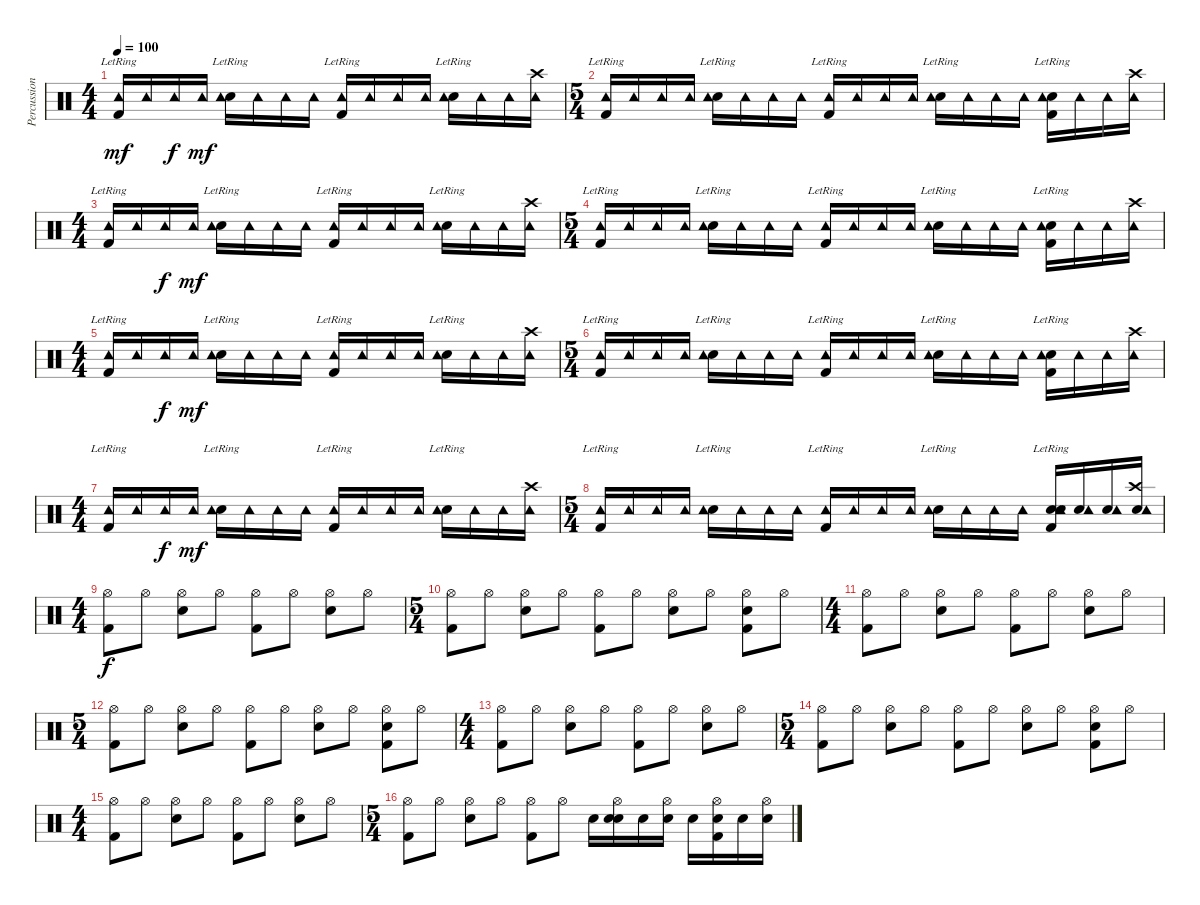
\track ("Percussion" "Percussion") {instrument percussion}
\staff {score}
\articulation defaults
\ts (4 4)
\tempo 100
\clef neutral
\ks c
("Kick (hit) 2"{lr} "Tambourine (hit)").16{dy mf} "Tambourine (hit)".16 "Tambourine (hit)".16{dy f} "Tambourine (hit)".16{dy mf} ("Snare (hit) 2"{lr} "Tambourine (hit)").16 "Tambourine (hit)".16 "Tambourine (hit)".16 "Tambourine (hit)".16 ("Kick (hit) 2"{lr} "Tambourine (hit)").16 "Tambourine (hit)".16 "Tambourine (hit)".16 "Tambourine (hit)".16 ("Snare (hit) 2"{lr} "Tambourine (hit)").16 "Tambourine (hit)".16 "Tambourine (hit)".16 ("Crash high (hit)" "Tambourine (hit)").16 |
\ts (5 4)
("Kick (hit) 2"{lr} "Tambourine (hit)").16 "Tambourine (hit)".16 "Tambourine (hit)".16 "Tambourine (hit)".16 ("Snare (hit) 2"{lr} "Tambourine (hit)").16 "Tambourine (hit)".16 "Tambourine (hit)".16 "Tambourine (hit)".16 ("Kick (hit) 2"{lr} "Tambourine (hit)").16 "Tambourine (hit)".16 "Tambourine (hit)".16 "Tambourine (hit)".16 ("Snare (hit) 2"{lr} "Tambourine (hit)").16 "Tambourine (hit)".16 "Tambourine (hit)".16 "Tambourine (hit)".16 ("Kick (hit) 2"{lr} "Snare (hit) 2"{lr} "Tambourine (hit)").16 "Tambourine (hit)".16 "Tambourine (hit)".16 ("Crash high (hit)" "Tambourine (hit)").16 |
\ts (4 4)
("Kick (hit) 2"{lr} "Tambourine (hit)").16 "Tambourine (hit)".16 "Tambourine (hit)".16{dy f} "Tambourine (hit)".16{dy mf} ("Snare (hit) 2"{lr} "Tambourine (hit)").16 "Tambourine (hit)".16 "Tambourine (hit)".16 "Tambourine (hit)".16 ("Kick (hit) 2"{lr} "Tambourine (hit)").16 "Tambourine (hit)".16 "Tambourine (hit)".16 "Tambourine (hit)".16 ("Snare (hit) 2"{lr} "Tambourine (hit)").16 "Tambourine (hit)".16 "Tambourine (hit)".16 ("Crash high (hit)" "Tambourine (hit)").16 |
\ts (5 4)
("Kick (hit) 2"{lr} "Tambourine (hit)").16 "Tambourine (hit)".16 "Tambourine (hit)".16 "Tambourine (hit)".16 ("Snare (hit) 2"{lr} "Tambourine (hit)").16 "Tambourine (hit)".16 "Tambourine (hit)".16 "Tambourine (hit)".16 ("Kick (hit) 2"{lr} "Tambourine (hit)").16 "Tambourine (hit)".16 "Tambourine (hit)".16 "Tambourine (hit)".16 ("Snare (hit) 2"{lr} "Tambourine (hit)").16 "Tambourine (hit)".16 "Tambourine (hit)".16 "Tambourine (hit)".16 ("Kick (hit) 2"{lr} "Snare (hit) 2"{lr} "Tambourine (hit)").16 "Tambourine (hit)".16 "Tambourine (hit)".16 ("Crash high (hit)" "Tambourine (hit)").16 |
\ts (4 4)
("Kick (hit) 2"{lr} "Tambourine (hit)").16 "Tambourine (hit)".16 "Tambourine (hit)".16{dy f} "Tambourine (hit)".16{dy mf} ("Snare (hit) 2"{lr} "Tambourine (hit)").16 "Tambourine (hit)".16 "Tambourine (hit)".16 "Tambourine (hit)".16 ("Kick (hit) 2"{lr} "Tambourine (hit)").16 "Tambourine (hit)".16 "Tambourine (hit)".16 "Tambourine (hit)".16 ("Snare (hit) 2"{lr} "Tambourine (hit)").16 "Tambourine (hit)".16 "Tambourine (hit)".16 ("Crash high (hit)" "Tambourine (hit)").16 |
\ts (5 4)
("Kick (hit) 2"{lr} "Tambourine (hit)").16 "Tambourine (hit)".16 "Tambourine (hit)".16 "Tambourine (hit)".16 ("Snare (hit) 2"{lr} "Tambourine (hit)").16 "Tambourine (hit)".16 "Tambourine (hit)".16 "Tambourine (hit)".16 ("Kick (hit) 2"{lr} "Tambourine (hit)").16 "Tambourine (hit)".16 "Tambourine (hit)".16 "Tambourine (hit)".16 ("Snare (hit) 2"{lr} "Tambourine (hit)").16 "Tambourine (hit)".16 "Tambourine (hit)".16 "Tambourine (hit)".16 ("Kick (hit) 2"{lr} "Snare (hit) 2"{lr} "Tambourine (hit)").16 "Tambourine (hit)".16 "Tambourine (hit)".16 ("Crash high (hit)" "Tambourine (hit)").16 |
\ts (4 4)
("Kick (hit) 2"{lr} "Tambourine (hit)").16 "Tambourine (hit)".16 "Tambourine (hit)".16{dy f} "Tambourine (hit)".16{dy mf} ("Snare (hit) 2"{lr} "Tambourine (hit)").16 "Tambourine (hit)".16 "Tambourine (hit)".16 "Tambourine (hit)".16 ("Kick (hit) 2"{lr} "Tambourine (hit)").16 "Tambourine (hit)".16 "Tambourine (hit)".16 "Tambourine (hit)".16 ("Snare (hit) 2"{lr} "Tambourine (hit)").16 "Tambourine (hit)".16 "Tambourine (hit)".16 ("Crash high (hit)" "Tambourine (hit)").16 |
\ts (5 4)
("Kick (hit) 2"{lr} "Tambourine (hit)").16 "Tambourine (hit)".16 "Tambourine (hit)".16 "Tambourine (hit)".16 ("Snare (hit) 2"{lr} "Tambourine (hit)").16 "Tambourine (hit)".16 "Tambourine (hit)".16 "Tambourine (hit)".16 ("Kick (hit) 2"{lr} "Tambourine (hit)").16 "Tambourine (hit)".16 "Tambourine (hit)".16 "Tambourine (hit)".16 ("Snare (hit) 2"{lr} "Tambourine (hit)").16 "Tambourine (hit)".16 "Tambourine (hit)".16 "Tambourine (hit)".16 ("Kick (hit) 2"{lr} "Snare (hit) 2"{lr} "Electric Snare (hit)" "Tambourine (hit)").16 ("Electric Snare (hit)" "Tambourine (hit)").16 ("Electric Snare (hit)" "Tambourine (hit)").16 ("Crash high (hit)" "Electric Snare (hit)" "Tambourine (hit)").16 |
\ts (4 4)
("Kick (hit) 2" "Hi-Hat (open)").8{dy f} "Hi-Hat (open)".8 ("Snare (hit) 2" "Hi-Hat (open)").8 "Hi-Hat (open)".8 ("Kick (hit) 2" "Hi-Hat (open)").8 "Hi-Hat (open)".8 ("Snare (hit) 2" "Hi-Hat (open)").8 "Hi-Hat (open)".8 |
\ts (5 4)
("Kick (hit) 2" "Hi-Hat (open)").8 "Hi-Hat (open)".8 ("Snare (hit) 2" "Hi-Hat (open)").8 "Hi-Hat (open)".8 ("Kick (hit) 2" "Hi-Hat (open)").8 "Hi-Hat (open)".8 ("Snare (hit) 2" "Hi-Hat (open)").8 "Hi-Hat (open)".8 ("Kick (hit) 2" "Snare (hit) 2" "Hi-Hat (open)").8 "Hi-Hat (open)".8 |
\ts (4 4)
("Kick (hit) 2" "Hi-Hat (open)").8 "Hi-Hat (open)".8 ("Snare (hit) 2" "Hi-Hat (open)").8 "Hi-Hat (open)".8 ("Kick (hit) 2" "Hi-Hat (open)").8 "Hi-Hat (open)".8 ("Snare (hit) 2" "Hi-Hat (open)").8 "Hi-Hat (open)".8 |
\ts (5 4)
("Kick (hit) 2" "Hi-Hat (open)").8 "Hi-Hat (open)".8 ("Snare (hit) 2" "Hi-Hat (open)").8 "Hi-Hat (open)".8 ("Kick (hit) 2" "Hi-Hat (open)").8 "Hi-Hat (open)".8 ("Snare (hit) 2" "Hi-Hat (open)").8 "Hi-Hat (open)".8 ("Kick (hit) 2" "Snare (hit) 2" "Hi-Hat (open)").8 "Hi-Hat (open)".8 |
\ts (4 4)
("Kick (hit) 2" "Hi-Hat (open)").8 "Hi-Hat (open)".8 ("Snare (hit) 2" "Hi-Hat (open)").8 "Hi-Hat (open)".8 ("Kick (hit) 2" "Hi-Hat (open)").8 "Hi-Hat (open)".8 ("Snare (hit) 2" "Hi-Hat (open)").8 "Hi-Hat (open)".8 |
\ts (5 4)
("Kick (hit) 2" "Hi-Hat (open)").8 "Hi-Hat (open)".8 ("Snare (hit) 2" "Hi-Hat (open)").8 "Hi-Hat (open)".8 ("Kick (hit) 2" "Hi-Hat (open)").8 "Hi-Hat (open)".8 ("Snare (hit) 2" "Hi-Hat (open)").8 "Hi-Hat (open)".8 ("Kick (hit) 2" "Snare (hit) 2" "Hi-Hat (open)").8 "Hi-Hat (open)".8 |
\ts (4 4)
("Kick (hit) 2" "Hi-Hat (open)").8 "Hi-Hat (open)".8 ("Snare (hit) 2" "Hi-Hat (open)").8 "Hi-Hat (open)".8 ("Kick (hit) 2" "Hi-Hat (open)").8 "Hi-Hat (open)".8 ("Snare (hit) 2" "Hi-Hat (open)").8 "Hi-Hat (open)".8 |
\ts (5 4)
("Kick (hit) 2" "Hi-Hat (open)").8 "Hi-Hat (open)".8 ("Snare (hit) 2" "Hi-Hat (open)").8 "Hi-Hat (open)".8 ("Kick (hit) 2" "Hi-Hat (open)").8 "Hi-Hat (open)".8 "Electric Snare (hit)".16 ("Snare (hit) 2" "Hi-Hat (open)" "Electric Snare (hit)").16 "Electric Snare (hit)".16 ("Hi-Hat (open)" "Electric Snare (hit)").16 "Electric Snare (hit)".16 ("Kick (hit) 2" "Hi-Hat (open)" "Electric Snare (hit)").16 "Electric Snare (hit)".16 ("Hi-Hat (open)" "Electric Snare (hit)").16
